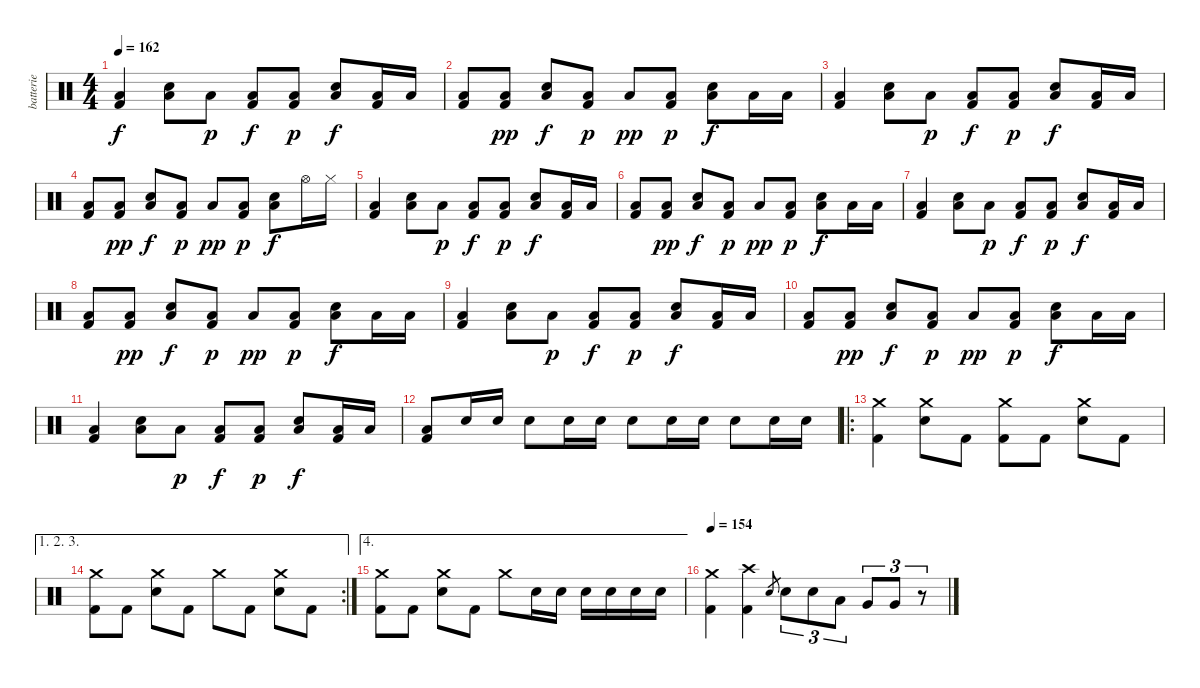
\track ("batterie" "batterie") {instrument percussion}
\staff {score}
\articulation defaults
\ts (4 4)
\tempo 162
\clef neutral
\ks c
("Low Floor Tom (hit)" "Kick (hit) 2").4{dy f} ("Low Floor Tom (hit)" "Electric Snare (hit)").8 "Low Floor Tom (hit)".8{dy p} ("Low Floor Tom (hit)" "Kick (hit) 2").8{dy f} ("Low Floor Tom (hit)" "Kick (hit) 2").8{dy p} ("Low Floor Tom (hit)" "Electric Snare (hit)").8{dy f} ("Low Floor Tom (hit)" "Kick (hit) 2").16 "Low Floor Tom (hit)".16 |
("Low Floor Tom (hit)" "Kick (hit) 2").8 ("Low Floor Tom (hit)" "Kick (hit) 2").8{dy pp} ("Low Floor Tom (hit)" "Electric Snare (hit)").8{dy f} ("Low Floor Tom (hit)" "Kick (hit) 2").8{dy p} "Low Floor Tom (hit)".8{dy pp} ("Low Floor Tom (hit)" "Kick (hit) 2").8{dy p} ("Low Floor Tom (hit)" "Electric Snare (hit)").8{dy f} "Low Floor Tom (hit)".16 "Low Floor Tom (hit)".16 |
("Low Floor Tom (hit)" "Kick (hit) 2").4 ("Low Floor Tom (hit)" "Electric Snare (hit)").8 "Low Floor Tom (hit)".8{dy p} ("Low Floor Tom (hit)" "Kick (hit) 2").8{dy f} ("Low Floor Tom (hit)" "Kick (hit) 2").8{dy p} ("Low Floor Tom (hit)" "Electric Snare (hit)").8{dy f} ("Low Floor Tom (hit)" "Kick (hit) 2").16 "Low Floor Tom (hit)".16 |
("Low Floor Tom (hit)" "Kick (hit) 2").8 ("Low Floor Tom (hit)" "Kick (hit) 2").8{dy pp} ("Low Floor Tom (hit)" "Electric Snare (hit)").8{dy f} ("Low Floor Tom (hit)" "Kick (hit) 2").8{dy p} "Low Floor Tom (hit)".8{dy pp} ("Low Floor Tom (hit)" "Kick (hit) 2").8{dy p} ("Low Floor Tom (hit)" "Electric Snare (hit)").8{dy f} "Hi-Hat (open)".16 "Hi-Hat (closed)".16 |
("Low Floor Tom (hit)" "Kick (hit) 2").4 ("Low Floor Tom (hit)" "Electric Snare (hit)").8 "Low Floor Tom (hit)".8{dy p} ("Low Floor Tom (hit)" "Kick (hit) 2").8{dy f} ("Low Floor Tom (hit)" "Kick (hit) 2").8{dy p} ("Low Floor Tom (hit)" "Electric Snare (hit)").8{dy f} ("Low Floor Tom (hit)" "Kick (hit) 2").16 "Low Floor Tom (hit)".16 |
("Low Floor Tom (hit)" "Kick (hit) 2").8 ("Low Floor Tom (hit)" "Kick (hit) 2").8{dy pp} ("Low Floor Tom (hit)" "Electric Snare (hit)").8{dy f} ("Low Floor Tom (hit)" "Kick (hit) 2").8{dy p} "Low Floor Tom (hit)".8{dy pp} ("Low Floor Tom (hit)" "Kick (hit) 2").8{dy p} ("Low Floor Tom (hit)" "Electric Snare (hit)").8{dy f} "Low Floor Tom (hit)".16 "Low Floor Tom (hit)".16 |
("Low Floor Tom (hit)" "Kick (hit) 2").4 ("Low Floor Tom (hit)" "Electric Snare (hit)").8 "Low Floor Tom (hit)".8{dy p} ("Low Floor Tom (hit)" "Kick (hit) 2").8{dy f} ("Low Floor Tom (hit)" "Kick (hit) 2").8{dy p} ("Low Floor Tom (hit)" "Electric Snare (hit)").8{dy f} ("Low Floor Tom (hit)" "Kick (hit) 2").16 "Low Floor Tom (hit)".16 |
("Low Floor Tom (hit)" "Kick (hit) 2").8 ("Low Floor Tom (hit)" "Kick (hit) 2").8{dy pp} ("Low Floor Tom (hit)" "Electric Snare (hit)").8{dy f} ("Low Floor Tom (hit)" "Kick (hit) 2").8{dy p} "Low Floor Tom (hit)".8{dy pp} ("Low Floor Tom (hit)" "Kick (hit) 2").8{dy p} ("Low Floor Tom (hit)" "Electric Snare (hit)").8{dy f} "Low Floor Tom (hit)".16 "Low Floor Tom (hit)".16 |
("Low Floor Tom (hit)" "Kick (hit) 2").4 ("Low Floor Tom (hit)" "Electric Snare (hit)").8 "Low Floor Tom (hit)".8{dy p} ("Low Floor Tom (hit)" "Kick (hit) 2").8{dy f} ("Low Floor Tom (hit)" "Kick (hit) 2").8{dy p} ("Low Floor Tom (hit)" "Electric Snare (hit)").8{dy f} ("Low Floor Tom (hit)" "Kick (hit) 2").16 "Low Floor Tom (hit)".16 |
("Low Floor Tom (hit)" "Kick (hit) 2").8 ("Low Floor Tom (hit)" "Kick (hit) 2").8{dy pp} ("Low Floor Tom (hit)" "Electric Snare (hit)").8{dy f} ("Low Floor Tom (hit)" "Kick (hit) 2").8{dy p} "Low Floor Tom (hit)".8{dy pp} ("Low Floor Tom (hit)" "Kick (hit) 2").8{dy p} ("Low Floor Tom (hit)" "Electric Snare (hit)").8{dy f} "Low Floor Tom (hit)".16 "Low Floor Tom (hit)".16 |
("Low Floor Tom (hit)" "Kick (hit) 2").4 ("Low Floor Tom (hit)" "Electric Snare (hit)").8 "Low Floor Tom (hit)".8{dy p} ("Low Floor Tom (hit)" "Kick (hit) 2").8{dy f} ("Low Floor Tom (hit)" "Kick (hit) 2").8{dy p} ("Low Floor Tom (hit)" "Electric Snare (hit)").8{dy f} ("Low Floor Tom (hit)" "Kick (hit) 2").16 "Low Floor Tom (hit)".16 |
("Low Floor Tom (hit)" "Kick (hit) 2").8 "Electric Snare (hit)".16 "Electric Snare (hit)".16 "Electric Snare (hit)".8 "Electric Snare (hit)".16 "Electric Snare (hit)".16 "Electric Snare (hit)".8 "Electric Snare (hit)".16 "Electric Snare (hit)".16 "Electric Snare (hit)".8 "Electric Snare (hit)".16 "Electric Snare (hit)".16 |
\ro
("Crash medium (hit)" "Kick (hit) 2").4 ("Crash medium (hit)" "Electric Snare (hit)").8 "Kick (hit) 2".8 ("Crash medium (hit)" "Kick (hit) 2").8 "Kick (hit) 2".8 ("Crash medium (hit)" "Electric Snare (hit)").8 "Kick (hit) 2".8 |
\ae (1 2 3)
\rc 2
("Crash medium (hit)" "Kick (hit) 2").8 "Kick (hit) 2".8 ("Crash medium (hit)" "Electric Snare (hit)").8 "Kick (hit) 2".8 "Crash medium (hit)".8 "Kick (hit) 2".8 ("Crash medium (hit)" "Electric Snare (hit)").8 "Kick (hit) 2".8 |
\ae 4
("Crash medium (hit)" "Kick (hit) 2").8 "Kick (hit) 2".8 ("Crash medium (hit)" "Electric Snare (hit)").8 "Kick (hit) 2".8 "Crash medium (hit)".8 "Electric Snare (hit)".16 "Electric Snare (hit)".16 "Electric Snare (hit)".16 "Electric Snare (hit)".16 "Electric Snare (hit)".16 "Electric Snare (hit)".16 |
\tempo 154
("Crash medium (hit)" "Kick (hit) 2").4 ("Crash high (hit)" "Kick (hit) 2").4 "Electric Snare (hit)".8{gr} "Electric Snare (hit)".8{tu (3 2)} "Electric Snare (hit)".8{tu (3 2)} "Low Tom (hit)".8{tu (3 2)} "Very Low Tom (hit)".8{tu (3 2)} "Very Low Tom (hit)".8{tu (3 2)} r.8{tu (3 2)}
